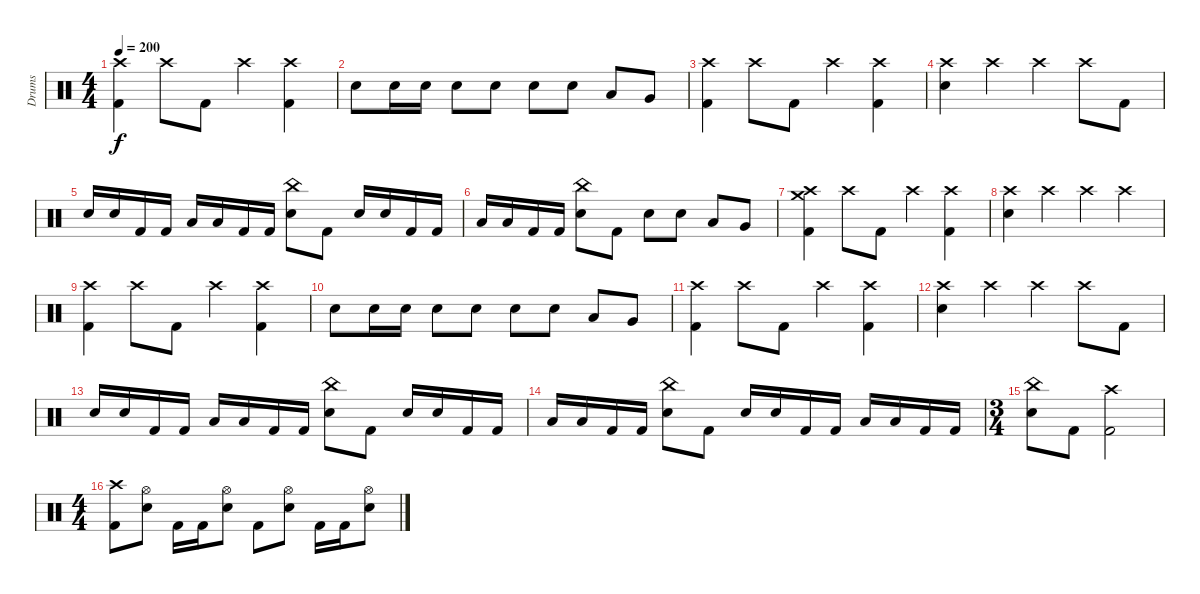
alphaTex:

\track ("Drums" "Drums") {instrument percussion}
\staff {score}
\articulation defaults
\ts (4 4)
\tempo 200
\clef neutral
\ks c
("Crash high (hit)" "Kick (hit) 2").4{dy f} "Crash high (hit)".8 "Kick (hit) 2".8 "Crash high (hit)".4 ("Crash high (hit)" "Kick (hit) 2").4 |
"Electric Snare (hit)".8 "Electric Snare (hit)".16 "Electric Snare (hit)".16 "Electric Snare (hit)".8 "Electric Snare (hit)".8 "Electric Snare (hit)".8 "Electric Snare (hit)".8 "Low Tom (hit)".8 "Very Low Tom (hit)".8 |
("Crash high (hit)" "Kick (hit) 2").4 "Crash high (hit)".8 "Kick (hit) 2".8 "Crash high (hit)".4 ("Crash high (hit)" "Kick (hit) 2").4 |
("Crash high (hit)" "Electric Snare (hit)").4 "Crash high (hit)".4 "Crash high (hit)".4 "Crash high (hit)".8 "Kick (hit) 2".8 |
"Electric Snare (hit)".16 "Electric Snare (hit)".16 "Kick (hit) 2".16 "Kick (hit) 2".16 "Low Tom (hit)".16 "Low Tom (hit)".16 "Kick (hit) 2".16 "Kick (hit) 2".16 ("China (hit)" "Electric Snare (hit)").8 "Kick (hit) 2".8 "Electric Snare (hit)".16 "Electric Snare (hit)".16 "Kick (hit) 2".16 "Kick (hit) 2".16 |
"Low Tom (hit)".16 "Low Tom (hit)".16 "Kick (hit) 2".16 "Kick (hit) 2".16 ("China (hit)" "Electric Snare (hit)").8 "Kick (hit) 2".8 "Electric Snare (hit)".8 "Electric Snare (hit)".8 "Low Tom (hit)".8 "Very Low Tom (hit)".8 |
("Crash high (hit)" "Crash medium (hit)" "Kick (hit) 2").4 "Crash high (hit)".8 "Kick (hit) 2".8 "Crash high (hit)".4 ("Crash high (hit)" "Kick (hit) 2").4 |
("Crash high (hit)" "Electric Snare (hit)").4 "Crash high (hit)".4 "Crash high (hit)".4 "Crash high (hit)".4 |
("Crash high (hit)" "Kick (hit) 2").4 "Crash high (hit)".8 "Kick (hit) 2".8 "Crash high (hit)".4 ("Crash high (hit)" "Kick (hit) 2").4 |
"Electric Snare (hit)".8 "Electric Snare (hit)".16 "Electric Snare (hit)".16 "Electric Snare (hit)".8 "Electric Snare (hit)".8 "Electric Snare (hit)".8 "Electric Snare (hit)".8 "Low Tom (hit)".8 "Very Low Tom (hit)".8 |
("Crash high (hit)" "Kick (hit) 2").4 "Crash high (hit)".8 "Kick (hit) 2".8 "Crash high (hit)".4 ("Crash high (hit)" "Kick (hit) 2").4 |
("Crash high (hit)" "Electric Snare (hit)").4 "Crash high (hit)".4 "Crash high (hit)".4 "Crash high (hit)".8 "Kick (hit) 2".8 |
"Electric Snare (hit)".16 "Electric Snare (hit)".16 "Kick (hit) 2".16 "Kick (hit) 2".16 "Low Tom (hit)".16 "Low Tom (hit)".16 "Kick (hit) 2".16 "Kick (hit) 2".16 ("China (hit)" "Electric Snare (hit)").8 "Kick (hit) 2".8 "Electric Snare (hit)".16 "Electric Snare (hit)".16 "Kick (hit) 2".16 "Kick (hit) 2".16 |
"Low Tom (hit)".16 "Low Tom (hit)".16 "Kick (hit) 2".16 "Kick (hit) 2".16 ("China (hit)" "Electric Snare (hit)").8 "Kick (hit) 2".8 "Electric Snare (hit)".16 "Electric Snare (hit)".16 "Kick (hit) 2".16 "Kick (hit) 2".16 "Low Tom (hit)".16 "Low Tom (hit)".16 "Kick (hit) 2".16 "Kick (hit) 2".16 |
\ts (3 4)
("China (hit)" "Electric Snare (hit)").8 "Kick (hit) 2".8 ("Crash high (hit)" "Kick (hit) 2").2 |
\ts (4 4)
("Crash high (hit)" "Kick (hit) 2").8 ("Hi-Hat (open)" "Electric Snare (hit)").8 "Kick (hit) 2".16 "Kick (hit) 2".16 ("Hi-Hat (open)" "Electric Snare (hit)").8 "Kick (hit) 2".8 ("Hi-Hat (open)" "Electric Snare (hit)").8 "Kick (hit) 2".16 "Kick (hit) 2".16 ("Hi-Hat (open)" "Electric Snare (hit)").8
